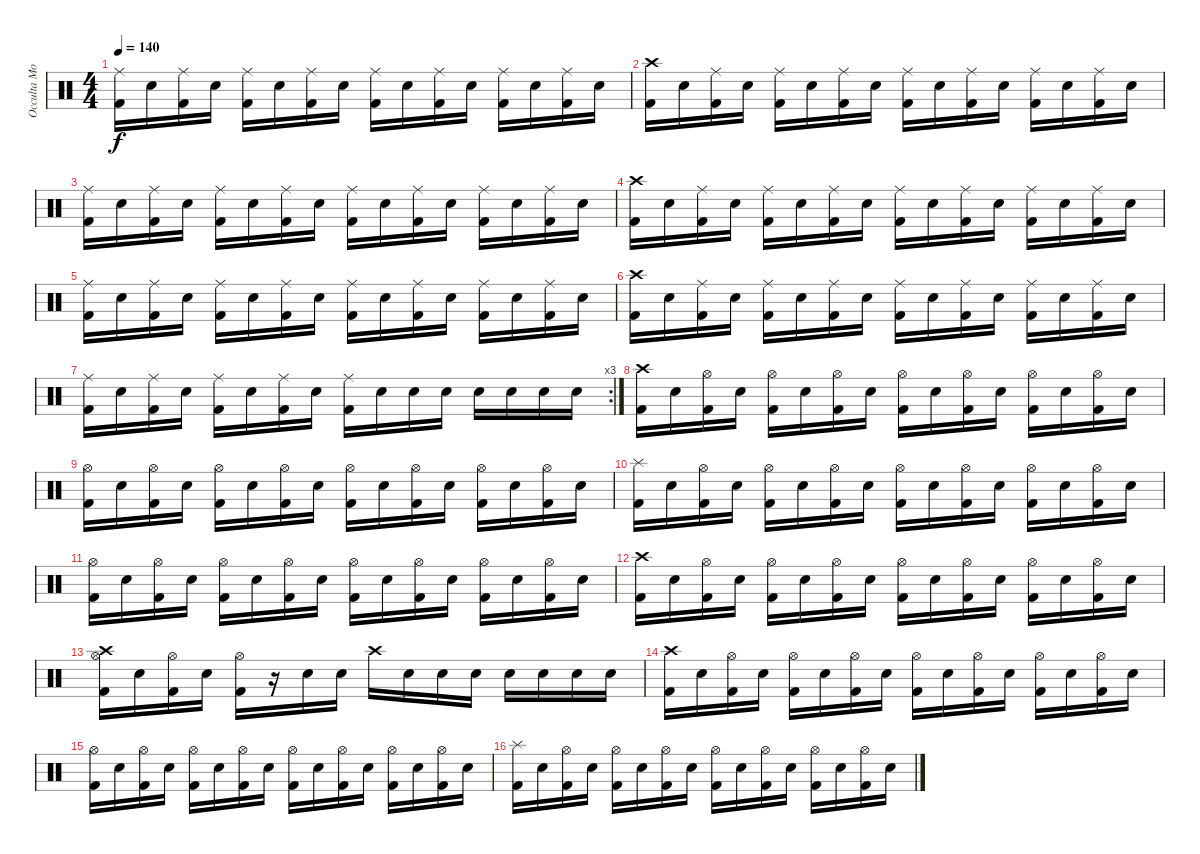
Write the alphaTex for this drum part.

\track ("Occulta Mors" "Occulta Mo") {instrument percussion}
\staff {score}
\articulation defaults
\ts (4 4)
\tempo 140
\clef neutral
\ks c
("Ride (middle)" "Kick (hit) 2").16{dy f} "Snare (hit) 2".16 ("Ride (middle)" "Kick (hit) 2").16 "Snare (hit) 2".16 ("Ride (middle)" "Kick (hit) 2").16 "Snare (hit) 2".16 ("Ride (middle)" "Kick (hit) 2").16 "Snare (hit) 2".16 ("Ride (middle)" "Kick (hit) 2").16 "Snare (hit) 2".16 ("Ride (middle)" "Kick (hit) 2").16 "Snare (hit) 2".16 ("Ride (middle)" "Kick (hit) 2").16 "Snare (hit) 2".16 ("Ride (middle)" "Kick (hit) 2").16 "Snare (hit) 2".16 |
("Crash high (hit)" "Kick (hit) 2").16 "Snare (hit) 2".16 ("Ride (middle)" "Kick (hit) 2").16 "Snare (hit) 2".16 ("Ride (middle)" "Kick (hit) 2").16 "Snare (hit) 2".16 ("Ride (middle)" "Kick (hit) 2").16 "Snare (hit) 2".16 ("Ride (middle)" "Kick (hit) 2").16 "Snare (hit) 2".16 ("Ride (middle)" "Kick (hit) 2").16 "Snare (hit) 2".16 ("Ride (middle)" "Kick (hit) 2").16 "Snare (hit) 2".16 ("Ride (middle)" "Kick (hit) 2").16 "Snare (hit) 2".16 |
("Ride (middle)" "Kick (hit) 2").16 "Snare (hit) 2".16 ("Ride (middle)" "Kick (hit) 2").16 "Snare (hit) 2".16 ("Ride (middle)" "Kick (hit) 2").16 "Snare (hit) 2".16 ("Ride (middle)" "Kick (hit) 2").16 "Snare (hit) 2".16 ("Ride (middle)" "Kick (hit) 2").16 "Snare (hit) 2".16 ("Ride (middle)" "Kick (hit) 2").16 "Snare (hit) 2".16 ("Ride (middle)" "Kick (hit) 2").16 "Snare (hit) 2".16 ("Ride (middle)" "Kick (hit) 2").16 "Snare (hit) 2".16 |
("Crash high (hit)" "Kick (hit) 2").16 "Snare (hit) 2".16 ("Ride (middle)" "Kick (hit) 2").16 "Snare (hit) 2".16 ("Ride (middle)" "Kick (hit) 2").16 "Snare (hit) 2".16 ("Ride (middle)" "Kick (hit) 2").16 "Snare (hit) 2".16 ("Ride (middle)" "Kick (hit) 2").16 "Snare (hit) 2".16 ("Ride (middle)" "Kick (hit) 2").16 "Snare (hit) 2".16 ("Ride (middle)" "Kick (hit) 2").16 "Snare (hit) 2".16 ("Ride (middle)" "Kick (hit) 2").16 "Snare (hit) 2".16 |
("Ride (middle)" "Kick (hit) 2").16 "Snare (hit) 2".16 ("Ride (middle)" "Kick (hit) 2").16 "Snare (hit) 2".16 ("Ride (middle)" "Kick (hit) 2").16 "Snare (hit) 2".16 ("Ride (middle)" "Kick (hit) 2").16 "Snare (hit) 2".16 ("Ride (middle)" "Kick (hit) 2").16 "Snare (hit) 2".16 ("Ride (middle)" "Kick (hit) 2").16 "Snare (hit) 2".16 ("Ride (middle)" "Kick (hit) 2").16 "Snare (hit) 2".16 ("Ride (middle)" "Kick (hit) 2").16 "Snare (hit) 2".16 |
("Crash high (hit)" "Kick (hit) 2").16 "Snare (hit) 2".16 ("Ride (middle)" "Kick (hit) 2").16 "Snare (hit) 2".16 ("Ride (middle)" "Kick (hit) 2").16 "Snare (hit) 2".16 ("Ride (middle)" "Kick (hit) 2").16 "Snare (hit) 2".16 ("Ride (middle)" "Kick (hit) 2").16 "Snare (hit) 2".16 ("Ride (middle)" "Kick (hit) 2").16 "Snare (hit) 2".16 ("Ride (middle)" "Kick (hit) 2").16 "Snare (hit) 2".16 ("Ride (middle)" "Kick (hit) 2").16 "Snare (hit) 2".16 |
\rc 3
("Ride (middle)" "Kick (hit) 2").16 "Snare (hit) 2".16 ("Ride (middle)" "Kick (hit) 2").16 "Snare (hit) 2".16 ("Ride (middle)" "Kick (hit) 2").16 "Snare (hit) 2".16 ("Ride (middle)" "Kick (hit) 2").16 "Snare (hit) 2".16 ("Ride (middle)" "Kick (hit) 2").16 "Snare (hit) 2".16 "Snare (hit) 2".16 "Snare (hit) 2".16 "Snare (hit) 2".16 "Snare (hit) 2".16 "Snare (hit) 2".16 "Snare (hit) 2".16 |
("Crash high (hit)" "Kick (hit) 2").16 "Snare (hit) 2".16 ("Hi-Hat (open)" "Kick (hit) 2").16 "Snare (hit) 2".16 ("Hi-Hat (open)" "Kick (hit) 2").16 "Snare (hit) 2".16 ("Hi-Hat (open)" "Kick (hit) 2").16 "Snare (hit) 2".16 ("Hi-Hat (open)" "Kick (hit) 2").16 "Snare (hit) 2".16 ("Hi-Hat (open)" "Kick (hit) 2").16 "Snare (hit) 2".16 ("Hi-Hat (open)" "Kick (hit) 2").16 "Snare (hit) 2".16 ("Hi-Hat (open)" "Kick (hit) 2").16 "Snare (hit) 2".16 |
("Hi-Hat (open)" "Kick (hit) 2").16 "Snare (hit) 2".16 ("Hi-Hat (open)" "Kick (hit) 2").16 "Snare (hit) 2".16 ("Hi-Hat (open)" "Kick (hit) 2").16 "Snare (hit) 2".16 ("Hi-Hat (open)" "Kick (hit) 2").16 "Snare (hit) 2".16 ("Hi-Hat (open)" "Kick (hit) 2").16 "Snare (hit) 2".16 ("Hi-Hat (open)" "Kick (hit) 2").16 "Snare (hit) 2".16 ("Hi-Hat (open)" "Kick (hit) 2").16 "Snare (hit) 2".16 ("Hi-Hat (open)" "Kick (hit) 2").16 "Snare (hit) 2".16 |
("Splash (hit)" "Kick (hit) 2").16 "Snare (hit) 2".16 ("Hi-Hat (open)" "Kick (hit) 2").16 "Snare (hit) 2".16 ("Hi-Hat (open)" "Kick (hit) 2").16 "Snare (hit) 2".16 ("Hi-Hat (open)" "Kick (hit) 2").16 "Snare (hit) 2".16 ("Hi-Hat (open)" "Kick (hit) 2").16 "Snare (hit) 2".16 ("Hi-Hat (open)" "Kick (hit) 2").16 "Snare (hit) 2".16 ("Hi-Hat (open)" "Kick (hit) 2").16 "Snare (hit) 2".16 ("Hi-Hat (open)" "Kick (hit) 2").16 "Snare (hit) 2".16 |
("Hi-Hat (open)" "Kick (hit) 2").16 "Snare (hit) 2".16 ("Hi-Hat (open)" "Kick (hit) 2").16 "Snare (hit) 2".16 ("Hi-Hat (open)" "Kick (hit) 2").16 "Snare (hit) 2".16 ("Hi-Hat (open)" "Kick (hit) 2").16 "Snare (hit) 2".16 ("Hi-Hat (open)" "Kick (hit) 2").16 "Snare (hit) 2".16 ("Hi-Hat (open)" "Kick (hit) 2").16 "Snare (hit) 2".16 ("Hi-Hat (open)" "Kick (hit) 2").16 "Snare (hit) 2".16 ("Hi-Hat (open)" "Kick (hit) 2").16 "Snare (hit) 2".16 |
("Crash high (hit)" "Kick (hit) 2").16 "Snare (hit) 2".16 ("Hi-Hat (open)" "Kick (hit) 2").16 "Snare (hit) 2".16 ("Hi-Hat (open)" "Kick (hit) 2").16 "Snare (hit) 2".16 ("Hi-Hat (open)" "Kick (hit) 2").16 "Snare (hit) 2".16 ("Hi-Hat (open)" "Kick (hit) 2").16 "Snare (hit) 2".16 ("Hi-Hat (open)" "Kick (hit) 2").16 "Snare (hit) 2".16 ("Hi-Hat (open)" "Kick (hit) 2").16 "Snare (hit) 2".16 ("Hi-Hat (open)" "Kick (hit) 2").16 "Snare (hit) 2".16 |
("Crash high (hit)" "Hi-Hat (open)" "Kick (hit) 2").16 "Snare (hit) 2".16 ("Hi-Hat (open)" "Kick (hit) 2").16 "Snare (hit) 2".16 ("Hi-Hat (open)" "Kick (hit) 2").16 r.16 "Snare (hit) 2".16 "Snare (hit) 2".16 "Crash high (hit)".16 "Snare (hit) 2".16 "Snare (hit) 2".16 "Snare (hit) 2".16 "Snare (hit) 2".16 "Snare (hit) 2".16 "Snare (hit) 2".16 "Snare (hit) 2".16 |
("Crash high (hit)" "Kick (hit) 2").16 "Snare (hit) 2".16 ("Hi-Hat (open)" "Kick (hit) 2").16 "Snare (hit) 2".16 ("Hi-Hat (open)" "Kick (hit) 2").16 "Snare (hit) 2".16 ("Hi-Hat (open)" "Kick (hit) 2").16 "Snare (hit) 2".16 ("Hi-Hat (open)" "Kick (hit) 2").16 "Snare (hit) 2".16 ("Hi-Hat (open)" "Kick (hit) 2").16 "Snare (hit) 2".16 ("Hi-Hat (open)" "Kick (hit) 2").16 "Snare (hit) 2".16 ("Hi-Hat (open)" "Kick (hit) 2").16 "Snare (hit) 2".16 |
("Hi-Hat (open)" "Kick (hit) 2").16 "Snare (hit) 2".16 ("Hi-Hat (open)" "Kick (hit) 2").16 "Snare (hit) 2".16 ("Hi-Hat (open)" "Kick (hit) 2").16 "Snare (hit) 2".16 ("Hi-Hat (open)" "Kick (hit) 2").16 "Snare (hit) 2".16 ("Hi-Hat (open)" "Kick (hit) 2").16 "Snare (hit) 2".16 ("Hi-Hat (open)" "Kick (hit) 2").16 "Snare (hit) 2".16 ("Hi-Hat (open)" "Kick (hit) 2").16 "Snare (hit) 2".16 ("Hi-Hat (open)" "Kick (hit) 2").16 "Snare (hit) 2".16 |
("Splash (hit)" "Kick (hit) 2").16 "Snare (hit) 2".16 ("Hi-Hat (open)" "Kick (hit) 2").16 "Snare (hit) 2".16 ("Hi-Hat (open)" "Kick (hit) 2").16 "Snare (hit) 2".16 ("Hi-Hat (open)" "Kick (hit) 2").16 "Snare (hit) 2".16 ("Hi-Hat (open)" "Kick (hit) 2").16 "Snare (hit) 2".16 ("Hi-Hat (open)" "Kick (hit) 2").16 "Snare (hit) 2".16 ("Hi-Hat (open)" "Kick (hit) 2").16 "Snare (hit) 2".16 ("Hi-Hat (open)" "Kick (hit) 2").16 "Snare (hit) 2".16
